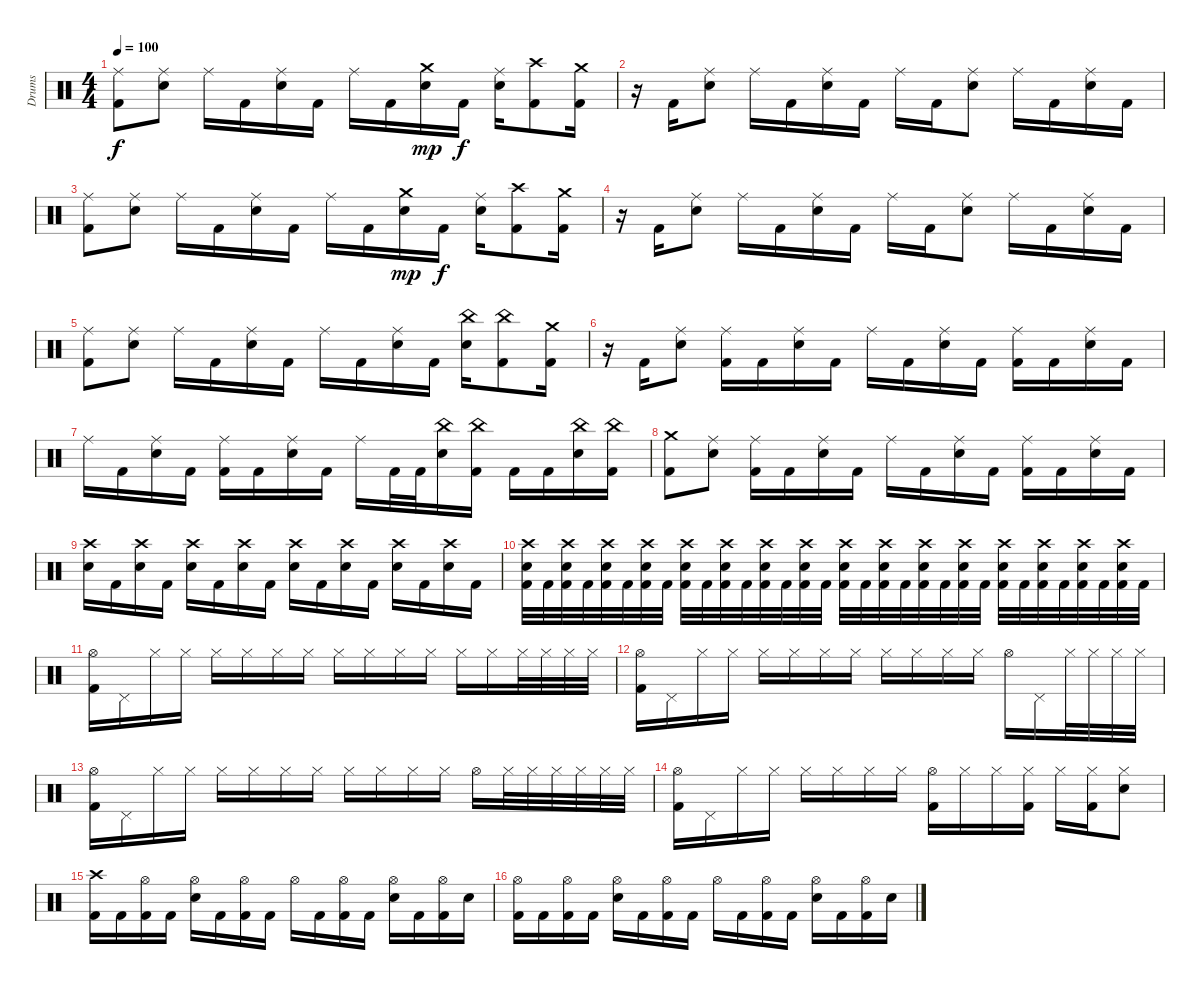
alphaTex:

\track ("Drums" "Drums") {instrument percussion}
\staff {score}
\articulation defaults
\ts (4 4)
\tempo 100
\clef neutral
\ks c
("Ride (middle)" "Kick (hit) 2").8{dy f} ("Ride (middle)" "Electric Snare (hit)").8 "Ride (middle)".16 "Kick (hit) 2".16 ("Ride (middle)" "Electric Snare (hit)").16 "Kick (hit) 2".16 "Ride (middle)".16 "Kick (hit) 2".16 ("Crash medium (hit)" "Electric Snare (hit)").16{dy mp} "Kick (hit) 2".16{dy f} ("Ride (middle)" "Electric Snare (hit)").16 ("Crash high (hit)" "Kick (hit) 2").8 ("Crash medium (hit)" "Kick (hit) 2").16 |
r.16 "Kick (hit) 2".16 ("Ride (middle)" "Electric Snare (hit)").8 "Ride (middle)".16 "Kick (hit) 2".16 ("Ride (middle)" "Electric Snare (hit)").16 "Kick (hit) 2".16 "Ride (middle)".16 "Kick (hit) 2".16 ("Ride (middle)" "Electric Snare (hit)").8 "Ride (middle)".16 "Kick (hit) 2".16 ("Ride (middle)" "Electric Snare (hit)").16 "Kick (hit) 2".16 |
("Ride (middle)" "Kick (hit) 2").8 ("Ride (middle)" "Electric Snare (hit)").8 "Ride (middle)".16 "Kick (hit) 2".16 ("Ride (middle)" "Electric Snare (hit)").16 "Kick (hit) 2".16 "Ride (middle)".16 "Kick (hit) 2".16 ("Crash medium (hit)" "Electric Snare (hit)").16{dy mp} "Kick (hit) 2".16{dy f} ("Ride (middle)" "Electric Snare (hit)").16 ("Crash high (hit)" "Kick (hit) 2").8 ("Crash medium (hit)" "Kick (hit) 2").16 |
r.16 "Kick (hit) 2".16 ("Ride (middle)" "Electric Snare (hit)").8 "Ride (middle)".16 "Kick (hit) 2".16 ("Ride (middle)" "Electric Snare (hit)").16 "Kick (hit) 2".16 "Ride (middle)".16 "Kick (hit) 2".16 ("Ride (middle)" "Electric Snare (hit)").8 "Ride (middle)".16 "Kick (hit) 2".16 ("Ride (middle)" "Electric Snare (hit)").16 "Kick (hit) 2".16 |
("Ride (middle)" "Kick (hit) 2").8 ("Ride (middle)" "Electric Snare (hit)").8 "Ride (middle)".16 "Kick (hit) 2".16 ("Ride (middle)" "Electric Snare (hit)").16 "Kick (hit) 2".16 "Ride (middle)".16 "Kick (hit) 2".16 ("Ride (middle)" "Electric Snare (hit)").16 "Kick (hit) 2".16 ("China (hit)" "Electric Snare (hit)").16 ("China (hit)" "Kick (hit) 2").8 ("Crash medium (hit)" "Kick (hit) 2").16 |
r.16 "Kick (hit) 2".16 ("Ride (middle)" "Electric Snare (hit)").8 ("Ride (middle)" "Kick (hit) 2").16 "Kick (hit) 2".16 ("Ride (middle)" "Electric Snare (hit)").16 "Kick (hit) 2".16 "Ride (middle)".16 "Kick (hit) 2".16 ("Ride (middle)" "Electric Snare (hit)").16 "Kick (hit) 2".16 ("Ride (middle)" "Kick (hit) 2").16 "Kick (hit) 2".16 ("Ride (middle)" "Electric Snare (hit)").16 "Kick (hit) 2".16 |
"Ride (middle)".16 "Kick (hit) 2".16 ("Ride (middle)" "Electric Snare (hit)").16 "Kick (hit) 2".16 ("Ride (middle)" "Kick (hit) 2").16 "Kick (hit) 2".16 ("Ride (middle)" "Electric Snare (hit)").16 "Kick (hit) 2".16 "Ride (middle)".16 "Kick (hit) 2".32 "Kick (hit) 2".32 ("China (hit)" "Electric Snare (hit)").16 ("China (hit)" "Kick (hit) 2").16 "Kick (hit) 2".16 "Kick (hit) 2".16 ("China (hit)" "Electric Snare (hit)").16 ("China (hit)" "Kick (hit) 2").16 |
("Crash medium (hit)" "Kick (hit) 2").8 ("Ride (middle)" "Electric Snare (hit)").8 ("Ride (middle)" "Kick (hit) 2").16 "Kick (hit) 2".16 ("Ride (middle)" "Electric Snare (hit)").16 "Kick (hit) 2".16 "Ride (middle)".16 "Kick (hit) 2".16 ("Ride (middle)" "Electric Snare (hit)").16 "Kick (hit) 2".16 ("Ride (middle)" "Kick (hit) 2").16 "Kick (hit) 2".16 ("Ride (middle)" "Electric Snare (hit)").16 "Kick (hit) 2".16 |
("Crash high (hit)" "Electric Snare (hit)").16 "Kick (hit) 2".16 ("Crash high (hit)" "Electric Snare (hit)").16 "Kick (hit) 2".16 ("Crash high (hit)" "Electric Snare (hit)").16 "Kick (hit) 2".16 ("Crash high (hit)" "Electric Snare (hit)").16 "Kick (hit) 2".16 ("Crash high (hit)" "Electric Snare (hit)").16 "Kick (hit) 2".16 ("Crash high (hit)" "Electric Snare (hit)").16 "Kick (hit) 2".16 ("Crash high (hit)" "Electric Snare (hit)").16 "Kick (hit) 2".16 ("Crash high (hit)" "Electric Snare (hit)").16 "Kick (hit) 2".16 |
("Crash high (hit)" "Electric Snare (hit)" "Kick (hit) 2").32 "Kick (hit) 2".32 ("Crash high (hit)" "Electric Snare (hit)" "Kick (hit) 2").32 "Kick (hit) 2".32 ("Crash high (hit)" "Electric Snare (hit)" "Kick (hit) 2").32 "Kick (hit) 2".32 ("Crash high (hit)" "Electric Snare (hit)" "Kick (hit) 2").32 "Kick (hit) 2".32 ("Crash high (hit)" "Electric Snare (hit)" "Kick (hit) 2").32 "Kick (hit) 2".32 ("Crash high (hit)" "Electric Snare (hit)" "Kick (hit) 2").32 "Kick (hit) 2".32 ("Crash high (hit)" "Electric Snare (hit)" "Kick (hit) 2").32 "Kick (hit) 2".32 ("Crash high (hit)" "Electric Snare (hit)" "Kick (hit) 2").32 "Kick (hit) 2".32 ("Crash high (hit)" "Electric Snare (hit)" "Kick (hit) 2").32 "Kick (hit) 2".32 ("Crash high (hit)" "Electric Snare (hit)" "Kick (hit) 2").32 "Kick (hit) 2".32 ("Crash high (hit)" "Electric Snare (hit)" "Kick (hit) 2").32 "Kick (hit) 2".32 ("Crash high (hit)" "Electric Snare (hit)" "Kick (hit) 2").32 "Kick (hit) 2".32 ("Crash high (hit)" "Electric Snare (hit)" "Kick (hit) 2").32 "Kick (hit) 2".32 ("Crash high (hit)" "Electric Snare (hit)" "Kick (hit) 2").32 "Kick (hit) 2".32 ("Crash high (hit)" "Electric Snare (hit)" "Kick (hit) 2").32 "Kick (hit) 2".32 ("Crash high (hit)" "Electric Snare (hit)" "Kick (hit) 2").32 "Kick (hit) 2".32 |
("Hi-Hat (open)" "Kick (hit) 2").16 "Pedal Hi-Hat (hit)".16 "Hi-Hat (closed)".16 "Hi-Hat (closed)".16 "Hi-Hat (closed)".16 "Hi-Hat (closed)".16 "Hi-Hat (closed)".16 "Hi-Hat (closed)".16 "Hi-Hat (closed)".16 "Hi-Hat (closed)".16 "Hi-Hat (closed)".16 "Hi-Hat (closed)".16 "Hi-Hat (closed)".16 "Hi-Hat (closed)".16 "Hi-Hat (closed)".32 "Hi-Hat (closed)".32 "Hi-Hat (closed)".32 "Hi-Hat (closed)".32 |
("Hi-Hat (open)" "Kick (hit) 2").16 "Pedal Hi-Hat (hit)".16 "Hi-Hat (closed)".16 "Hi-Hat (closed)".16 "Hi-Hat (closed)".16 "Hi-Hat (closed)".16 "Hi-Hat (closed)".16 "Hi-Hat (closed)".16 "Hi-Hat (closed)".16 "Hi-Hat (closed)".16 "Hi-Hat (closed)".16 "Hi-Hat (closed)".16 "Hi-Hat (open)".16 "Pedal Hi-Hat (hit)".16 "Hi-Hat (closed)".32 "Hi-Hat (closed)".32 "Hi-Hat (closed)".32 "Hi-Hat (closed)".32 |
("Hi-Hat (open)" "Kick (hit) 2").16 "Pedal Hi-Hat (hit)".16 "Hi-Hat (closed)".16 "Hi-Hat (closed)".16 "Hi-Hat (closed)".16 "Hi-Hat (closed)".16 "Hi-Hat (closed)".16 "Hi-Hat (closed)".16 "Hi-Hat (closed)".16 "Hi-Hat (closed)".16 "Hi-Hat (closed)".16 "Hi-Hat (closed)".16 "Hi-Hat (open)".16 "Hi-Hat (closed)".32 "Hi-Hat (closed)".32 "Hi-Hat (closed)".32 "Hi-Hat (closed)".32 "Hi-Hat (closed)".32 "Hi-Hat (closed)".32 |
("Hi-Hat (open)" "Kick (hit) 2").16 "Pedal Hi-Hat (hit)".16 "Hi-Hat (closed)".16 "Hi-Hat (closed)".16 "Hi-Hat (closed)".16 "Hi-Hat (closed)".16 "Hi-Hat (closed)".16 "Hi-Hat (closed)".16 ("Hi-Hat (open)" "Kick (hit) 2").16 "Hi-Hat (closed)".16 "Hi-Hat (closed)".16 ("Hi-Hat (closed)" "Kick (hit) 2").16 "Hi-Hat (closed)".16 ("Hi-Hat (closed)" "Kick (hit) 2").16 ("Hi-Hat (closed)" "Electric Snare (hit)").8 |
("Crash high (hit)" "Kick (hit) 2").16 "Kick (hit) 2".16 ("Hi-Hat (open)" "Kick (hit) 2").16 "Kick (hit) 2".16 ("Hi-Hat (open)" "Electric Snare (hit)").16 "Kick (hit) 2".16 ("Hi-Hat (open)" "Kick (hit) 2").16 "Kick (hit) 2".16 "Hi-Hat (open)".16 "Kick (hit) 2".16 ("Hi-Hat (open)" "Kick (hit) 2").16 "Kick (hit) 2".16 ("Hi-Hat (open)" "Electric Snare (hit)").16 "Kick (hit) 2".16 ("Hi-Hat (open)" "Kick (hit) 2").16 "Electric Snare (hit)".16 |
("Hi-Hat (open)" "Kick (hit) 2").16 "Kick (hit) 2".16 ("Hi-Hat (open)" "Kick (hit) 2").16 "Kick (hit) 2".16 ("Hi-Hat (open)" "Electric Snare (hit)").16 "Kick (hit) 2".16 ("Hi-Hat (open)" "Kick (hit) 2").16 "Kick (hit) 2".16 "Hi-Hat (open)".16 "Kick (hit) 2".16 ("Hi-Hat (open)" "Kick (hit) 2").16 "Kick (hit) 2".16 ("Hi-Hat (open)" "Electric Snare (hit)").16 "Kick (hit) 2".16 ("Hi-Hat (open)" "Kick (hit) 2").16 "Electric Snare (hit)".16
